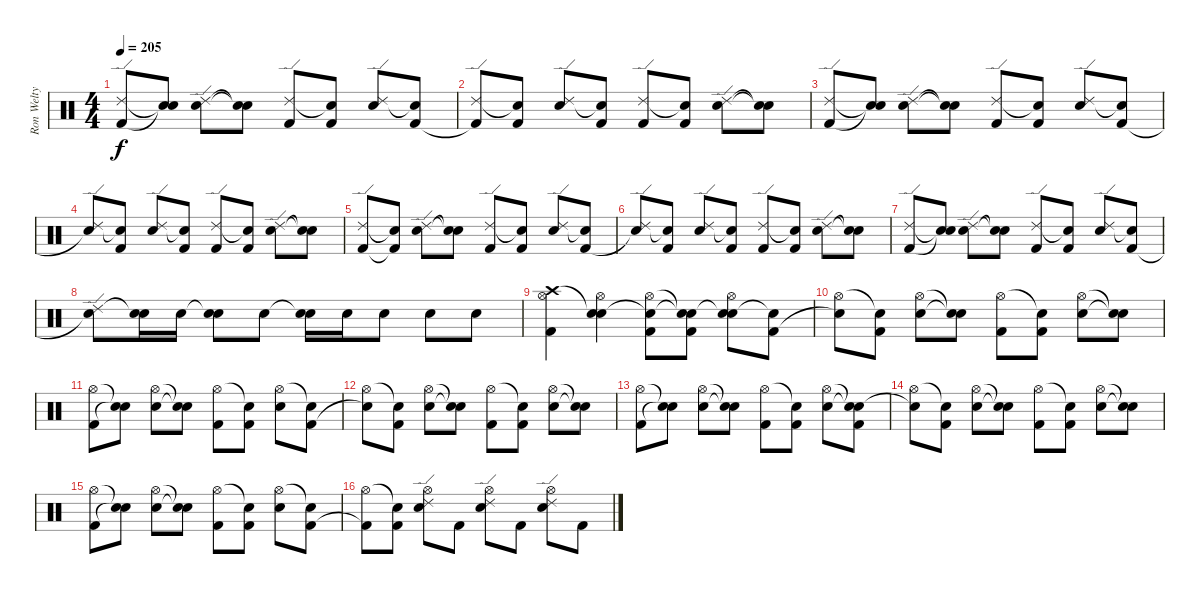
\track ("Ron Welty" "Ron Welty") {instrument percussion}
\staff {score}
\articulation defaults
\ts (4 4)
\tempo 205
\clef neutral
\ks c
("Ride (edge) 2" "Kick (hit) 2").8{dy f} ("Snare (hit)"{t} "Snare (hit)"{t}).8 ("Ride (edge) 2" "Electric Snare (hit)").8 ("Snare (hit)"{t} "Snare (hit)"{t}).8 ("Ride (edge) 2" "Kick (hit) 2").8 ("Snare (hit)"{t} "Kick (hit) 2").8 ("Ride (edge) 2" "Electric Snare (hit)").8 ("Snare (hit)"{t} "Kick (hit) 2").8 |
("Ride (edge) 2" "Kick (hit) 2"{t}).8 ("Snare (hit)"{t} "Kick (hit) 2").8 ("Ride (edge) 2" "Electric Snare (hit)").8 ("Snare (hit)"{t} "Kick (hit) 2").8 ("Ride (edge) 2" "Kick (hit) 2").8 ("Snare (hit)"{t} "Kick (hit) 2").8 ("Ride (edge) 2" "Electric Snare (hit)").8 ("Snare (hit)"{t} "Snare (hit)"{t}).8 |
("Ride (edge) 2" "Kick (hit) 2").8 ("Snare (hit)"{t} "Snare (hit)"{t}).8 ("Ride (edge) 2" "Electric Snare (hit)").8 ("Snare (hit)"{t} "Snare (hit)"{t}).8 ("Ride (edge) 2" "Kick (hit) 2").8 ("Snare (hit)"{t} "Kick (hit) 2").8 ("Ride (edge) 2" "Electric Snare (hit)").8 ("Snare (hit)"{t} "Kick (hit) 2").8 |
("Ride (edge) 2" "Snare (hit)"{t}).8 ("Snare (hit)"{t} "Kick (hit) 2").8 ("Ride (edge) 2" "Electric Snare (hit)").8 ("Snare (hit)"{t} "Kick (hit) 2").8 ("Ride (edge) 2" "Kick (hit) 2").8 ("Snare (hit)"{t} "Kick (hit) 2").8 ("Ride (edge) 2" "Electric Snare (hit)").8 ("Snare (hit)"{t} "Snare (hit)"{t}).8 |
("Ride (edge) 2" "Kick (hit) 2").8 ("Snare (hit)"{t} "Kick (hit) 2"{t}).8 ("Ride (edge) 2" "Electric Snare (hit)").8 ("Snare (hit)"{t} "Snare (hit)"{t}).8 ("Ride (edge) 2" "Kick (hit) 2").8 ("Snare (hit)"{t} "Kick (hit) 2").8 ("Ride (edge) 2" "Electric Snare (hit)").8 ("Snare (hit)"{t} "Kick (hit) 2").8 |
("Ride (edge) 2" "Snare (hit)"{t}).8 ("Snare (hit)"{t} "Kick (hit) 2").8 ("Ride (edge) 2" "Electric Snare (hit)").8 ("Snare (hit)"{t} "Kick (hit) 2").8 ("Ride (edge) 2" "Kick (hit) 2").8 ("Snare (hit)"{t} "Kick (hit) 2").8 ("Ride (edge) 2" "Electric Snare (hit)").8 ("Snare (hit)"{t} "Snare (hit)"{t}).8 |
("Ride (edge) 2" "Kick (hit) 2").8 ("Snare (hit)"{t} "Snare (hit)"{t}).8 ("Ride (edge) 2" "Electric Snare (hit)").8 ("Snare (hit)"{t} "Snare (hit)"{t}).8 ("Ride (edge) 2" "Kick (hit) 2").8 ("Snare (hit)"{t} "Kick (hit) 2").8 ("Ride (edge) 2" "Electric Snare (hit)").8 ("Snare (hit)"{t} "Kick (hit) 2").8 |
("Ride (edge) 2" "Snare (hit)"{t}).8 ("Snare (hit)"{t} "Electric Snare (hit)").16 "Electric Snare (hit)".16 ("Snare (hit)"{t} "Electric Snare (hit)").8 "Electric Snare (hit)".8 ("Snare (hit)"{t} "Electric Snare (hit)").16 "Electric Snare (hit)".16 "Electric Snare (hit)".8 "Electric Snare (hit)".8 "Electric Snare (hit)".8 |
("Crash high (hit)" "Hi-Hat (open)" "Kick (hit) 2").4 ("Snare (hit)"{t} "Hi-Hat (open)" "Electric Snare (hit)").4 ("Snare (hit)"{t} "Hi-Hat (open)" "Kick (hit) 2").8 ("Snare (hit)"{t} "Snare (hit)"{t} "Kick (hit) 2").8 ("Snare (hit)"{t} "Hi-Hat (open)" "Electric Snare (hit)").8 ("Snare (hit)"{t} "Kick (hit) 2").8 |
("Hi-Hat (open)" "Snare (hit)"{t}).8 ("Snare (hit)"{t} "Kick (hit) 2").8 ("Hi-Hat (open)" "Electric Snare (hit)").8 ("Snare (hit)"{t} "Snare (hit)"{t}).8 ("Hi-Hat (open)" "Kick (hit) 2").8 ("Snare (hit)"{t} "Kick (hit) 2").8 ("Hi-Hat (open)" "Electric Snare (hit)").8 ("Snare (hit)"{t} "Snare (hit)"{t}).8 |
("Hi-Hat (open)" "Kick (hit) 2").8 ("Snare (hit)"{t} "Snare (hit)"{t}).8 ("Hi-Hat (open)" "Electric Snare (hit)").8 ("Snare (hit)"{t} "Snare (hit)"{t}).8 ("Hi-Hat (open)" "Kick (hit) 2").8 ("Snare (hit)"{t} "Kick (hit) 2").8 ("Hi-Hat (open)" "Electric Snare (hit)").8 ("Snare (hit)"{t} "Kick (hit) 2").8 |
("Hi-Hat (open)" "Snare (hit)"{t}).8 ("Snare (hit)"{t} "Kick (hit) 2").8 ("Hi-Hat (open)" "Electric Snare (hit)").8 ("Snare (hit)"{t} "Snare (hit)"{t}).8 ("Hi-Hat (open)" "Kick (hit) 2").8 ("Snare (hit)"{t} "Kick (hit) 2").8 ("Hi-Hat (open)" "Electric Snare (hit)").8 ("Snare (hit)"{t} "Snare (hit)"{t}).8 |
("Hi-Hat (open)" "Kick (hit) 2").8 ("Snare (hit)"{t} "Snare (hit)"{t}).8 ("Hi-Hat (open)" "Electric Snare (hit)").8 ("Snare (hit)"{t} "Snare (hit)"{t}).8 ("Hi-Hat (open)" "Kick (hit) 2").8 ("Snare (hit)"{t} "Kick (hit) 2").8 ("Hi-Hat (open)" "Electric Snare (hit)").8 ("Snare (hit)"{t} "Snare (hit)"{t} "Kick (hit) 2").8 |
("Hi-Hat (open)" "Snare (hit)"{t}).8 ("Snare (hit)"{t} "Kick (hit) 2").8 ("Hi-Hat (open)" "Electric Snare (hit)").8 ("Snare (hit)"{t} "Snare (hit)"{t}).8 ("Hi-Hat (open)" "Kick (hit) 2").8 ("Snare (hit)"{t} "Kick (hit) 2").8 ("Hi-Hat (open)" "Electric Snare (hit)").8 ("Snare (hit)"{t} "Snare (hit)"{t}).8 |
("Hi-Hat (open)" "Kick (hit) 2").8 ("Snare (hit)"{t} "Snare (hit)"{t}).8 ("Hi-Hat (open)" "Electric Snare (hit)").8 ("Snare (hit)"{t} "Snare (hit)"{t}).8 ("Hi-Hat (open)" "Kick (hit) 2").8 ("Snare (hit)"{t} "Kick (hit) 2").8 ("Hi-Hat (open)" "Electric Snare (hit)").8 ("Snare (hit)"{t} "Kick (hit) 2").8 |
("Hi-Hat (open)" "Kick (hit) 2"{t}).8 ("Snare (hit)"{t} "Kick (hit) 2").8 ("Ride (edge) 2" "Hi-Hat (open)" "Electric Snare (hit)").8 "Kick (hit) 2".8 ("Ride (edge) 2" "Hi-Hat (open)" "Electric Snare (hit)").8 "Kick (hit) 2".8 ("Ride (edge) 2" "Hi-Hat (open)" "Electric Snare (hit)").8 "Kick (hit) 2".8
